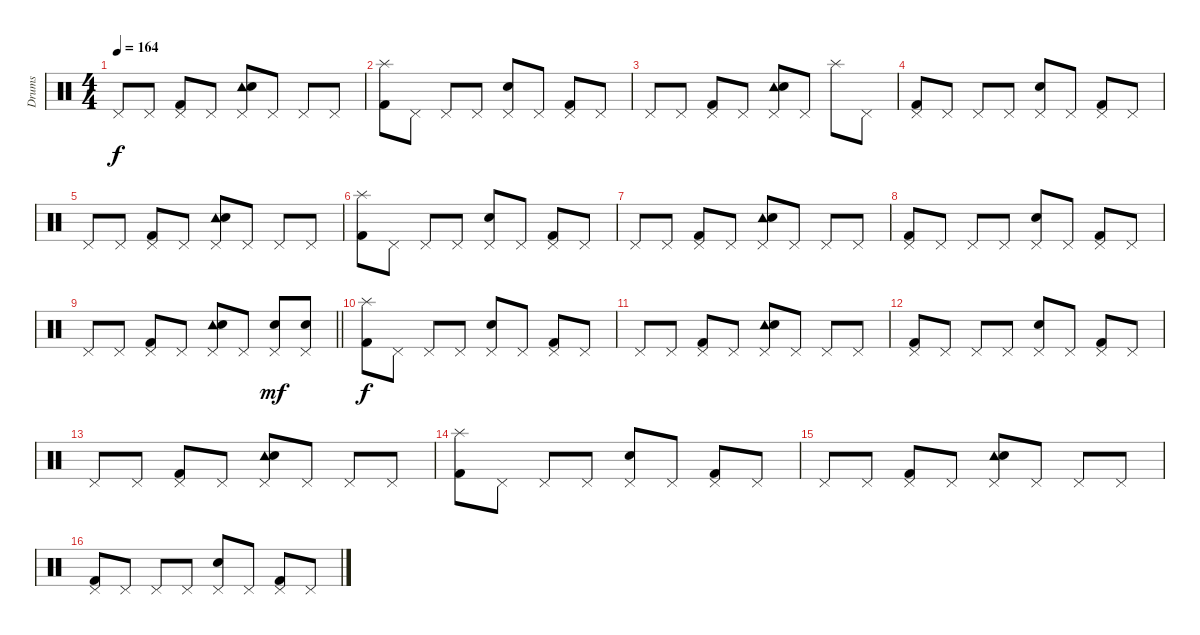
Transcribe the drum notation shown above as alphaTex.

\track ("Drums" "Drums") {instrument percussion}
\staff {score}
\articulation defaults
\ts (4 4)
\tempo 164
\clef neutral
\ks c "Pedal Hi-Hat (hit)".8{dy f} "Pedal Hi-Hat (hit)".8
("Pedal Hi-Hat (hit)" "Kick (hit) 2").8 "Pedal Hi-Hat (hit)".8 ("Tambourine (hit)" "Pedal Hi-Hat (hit)" "Snare (hit) 2").8 "Pedal Hi-Hat (hit)".8 "Pedal Hi-Hat (hit)".8 "Pedal Hi-Hat (hit)".8 |
("Splash (hit)" "Kick (hit) 2").8 "Pedal Hi-Hat (hit)".8 "Pedal Hi-Hat (hit)".8 "Pedal Hi-Hat (hit)".8 ("Pedal Hi-Hat (hit)" "Snare (hit) 2").8 "Pedal Hi-Hat (hit)".8 ("Pedal Hi-Hat (hit)" "Kick (hit) 2").8 "Pedal Hi-Hat (hit)".8 |
"Pedal Hi-Hat (hit)".8 "Pedal Hi-Hat (hit)".8 ("Pedal Hi-Hat (hit)" "Kick (hit) 2").8 "Pedal Hi-Hat (hit)".8 ("Tambourine (hit)" "Pedal Hi-Hat (hit)" "Snare (hit) 2").8 "Pedal Hi-Hat (hit)".8 "Splash (hit)".8 "Pedal Hi-Hat (hit)".8 |
("Pedal Hi-Hat (hit)" "Kick (hit) 2").8 "Pedal Hi-Hat (hit)".8 "Pedal Hi-Hat (hit)".8 "Pedal Hi-Hat (hit)".8 ("Pedal Hi-Hat (hit)" "Snare (hit) 2").8 "Pedal Hi-Hat (hit)".8 ("Pedal Hi-Hat (hit)" "Kick (hit) 2").8 "Pedal Hi-Hat (hit)".8 |
"Pedal Hi-Hat (hit)".8 "Pedal Hi-Hat (hit)".8 ("Pedal Hi-Hat (hit)" "Kick (hit) 2").8 "Pedal Hi-Hat (hit)".8 ("Tambourine (hit)" "Pedal Hi-Hat (hit)" "Snare (hit) 2").8 "Pedal Hi-Hat (hit)".8 "Pedal Hi-Hat (hit)".8 "Pedal Hi-Hat (hit)".8 |
("Splash (hit)" "Kick (hit) 2").8 "Pedal Hi-Hat (hit)".8 "Pedal Hi-Hat (hit)".8 "Pedal Hi-Hat (hit)".8 ("Pedal Hi-Hat (hit)" "Snare (hit) 2").8 "Pedal Hi-Hat (hit)".8 ("Pedal Hi-Hat (hit)" "Kick (hit) 2").8 "Pedal Hi-Hat (hit)".8 |
"Pedal Hi-Hat (hit)".8 "Pedal Hi-Hat (hit)".8 ("Pedal Hi-Hat (hit)" "Kick (hit) 2").8 "Pedal Hi-Hat (hit)".8 ("Tambourine (hit)" "Pedal Hi-Hat (hit)" "Snare (hit) 2").8 "Pedal Hi-Hat (hit)".8 "Pedal Hi-Hat (hit)".8 "Pedal Hi-Hat (hit)".8 |
("Pedal Hi-Hat (hit)" "Kick (hit) 2").8 "Pedal Hi-Hat (hit)".8 "Pedal Hi-Hat (hit)".8 "Pedal Hi-Hat (hit)".8 ("Pedal Hi-Hat (hit)" "Snare (hit) 2").8 "Pedal Hi-Hat (hit)".8 ("Pedal Hi-Hat (hit)" "Kick (hit) 2").8 "Pedal Hi-Hat (hit)".8 |
\barLineRight lightlight "Pedal Hi-Hat (hit)".8 "Pedal Hi-Hat (hit)".8
("Pedal Hi-Hat (hit)" "Kick (hit) 2").8 "Pedal Hi-Hat (hit)".8 ("Tambourine (hit)" "Pedal Hi-Hat (hit)" "Snare (hit) 2").8 "Pedal Hi-Hat (hit)".8 ("Pedal Hi-Hat (hit)" "Snare (hit) 2").8{dy mf} ("Pedal Hi-Hat (hit)" "Snare (hit) 2").8 |
("Splash (hit)" "Kick (hit) 2").8{dy f} "Pedal Hi-Hat (hit)".8 "Pedal Hi-Hat (hit)".8 "Pedal Hi-Hat (hit)".8 ("Pedal Hi-Hat (hit)" "Snare (hit) 2").8 "Pedal Hi-Hat (hit)".8 ("Pedal Hi-Hat (hit)" "Kick (hit) 2").8 "Pedal Hi-Hat (hit)".8 |
"Pedal Hi-Hat (hit)".8 "Pedal Hi-Hat (hit)".8 ("Pedal Hi-Hat (hit)" "Kick (hit) 2").8 "Pedal Hi-Hat (hit)".8 ("Tambourine (hit)" "Pedal Hi-Hat (hit)" "Snare (hit) 2").8 "Pedal Hi-Hat (hit)".8 "Pedal Hi-Hat (hit)".8 "Pedal Hi-Hat (hit)".8 |
("Pedal Hi-Hat (hit)" "Kick (hit) 2").8 "Pedal Hi-Hat (hit)".8 "Pedal Hi-Hat (hit)".8 "Pedal Hi-Hat (hit)".8 ("Pedal Hi-Hat (hit)" "Snare (hit) 2").8 "Pedal Hi-Hat (hit)".8 ("Pedal Hi-Hat (hit)" "Kick (hit) 2").8 "Pedal Hi-Hat (hit)".8 |
"Pedal Hi-Hat (hit)".8 "Pedal Hi-Hat (hit)".8 ("Pedal Hi-Hat (hit)" "Kick (hit) 2").8 "Pedal Hi-Hat (hit)".8 ("Tambourine (hit)" "Pedal Hi-Hat (hit)" "Snare (hit) 2").8 "Pedal Hi-Hat (hit)".8 "Pedal Hi-Hat (hit)".8 "Pedal Hi-Hat (hit)".8 |
("Splash (hit)" "Kick (hit) 2").8 "Pedal Hi-Hat (hit)".8 "Pedal Hi-Hat (hit)".8 "Pedal Hi-Hat (hit)".8 ("Pedal Hi-Hat (hit)" "Snare (hit) 2").8 "Pedal Hi-Hat (hit)".8 ("Pedal Hi-Hat (hit)" "Kick (hit) 2").8 "Pedal Hi-Hat (hit)".8 |
"Pedal Hi-Hat (hit)".8 "Pedal Hi-Hat (hit)".8 ("Pedal Hi-Hat (hit)" "Kick (hit) 2").8 "Pedal Hi-Hat (hit)".8 ("Tambourine (hit)" "Pedal Hi-Hat (hit)" "Snare (hit) 2").8 "Pedal Hi-Hat (hit)".8 "Pedal Hi-Hat (hit)".8 "Pedal Hi-Hat (hit)".8 |
("Pedal Hi-Hat (hit)" "Kick (hit) 2").8 "Pedal Hi-Hat (hit)".8 "Pedal Hi-Hat (hit)".8 "Pedal Hi-Hat (hit)".8 ("Pedal Hi-Hat (hit)" "Snare (hit) 2").8 "Pedal Hi-Hat (hit)".8 ("Pedal Hi-Hat (hit)" "Kick (hit) 2").8 "Pedal Hi-Hat (hit)".8
